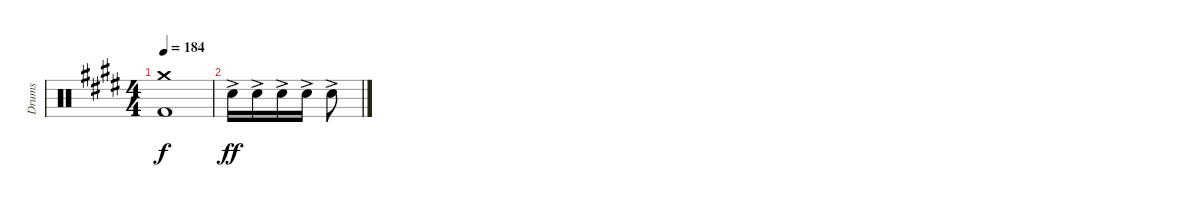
\track ("Drums" "Drums") {instrument percussion}
\staff {score}
\articulation defaults
\ts (4 4)
\tempo 184
\clef neutral
\ks c#minor
("Crash medium (hit)" "Kick (hit) 2").1{dy f} |
"Snare (hit) 2"{ac}.16{dy ff} "Snare (hit) 2"{ac}.16 "Snare (hit) 2"{ac}.16 "Snare (hit) 2"{ac}.16 "Snare (hit) 2"{ac}.8
